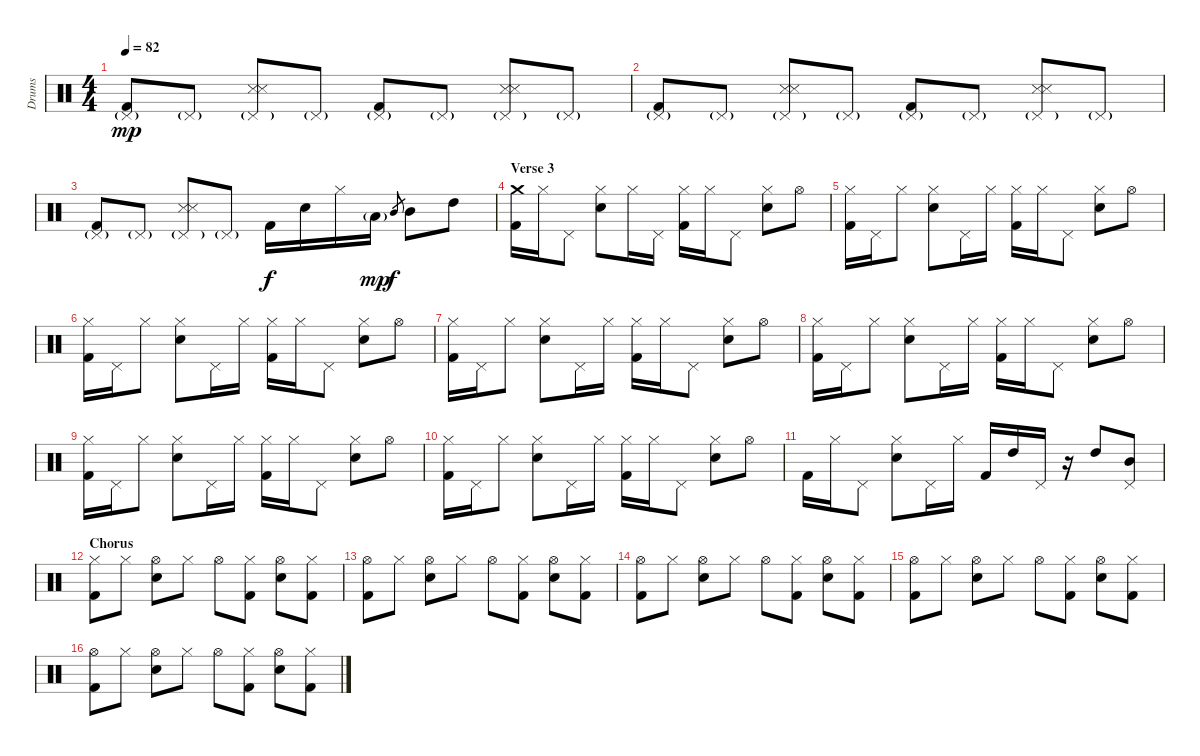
\track ("Drums" "Drums") {instrument percussion}
\staff {score}
\articulation defaults
\ts (4 4)
\tempo 82
\clef neutral
\ks c
("Pedal Hi-Hat (hit)"{g} "Kick (hit) 2").8{dy mp} "Pedal Hi-Hat (hit)"{g}.8 ("Snare (side stick) 3" "Pedal Hi-Hat (hit)"{g} "Snare (side stick) 3").8 "Pedal Hi-Hat (hit)"{g}.8 ("Pedal Hi-Hat (hit)"{g} "Kick (hit) 2").8 "Pedal Hi-Hat (hit)"{g}.8 ("Snare (side stick) 3" "Pedal Hi-Hat (hit)"{g} "Snare (side stick) 3").8 "Pedal Hi-Hat (hit)"{g}.8 |
("Pedal Hi-Hat (hit)"{g} "Kick (hit) 2").8 "Pedal Hi-Hat (hit)"{g}.8 ("Snare (side stick) 3" "Pedal Hi-Hat (hit)"{g} "Snare (side stick) 3").8 "Pedal Hi-Hat (hit)"{g}.8 ("Pedal Hi-Hat (hit)"{g} "Kick (hit) 2").8 "Pedal Hi-Hat (hit)"{g}.8 ("Snare (side stick) 3" "Pedal Hi-Hat (hit)"{g} "Snare (side stick) 3").8 "Pedal Hi-Hat (hit)"{g}.8 |
("Kick (hit) 2" "Pedal Hi-Hat (hit)"{g}).8 "Pedal Hi-Hat (hit)"{g}.8 ("Snare (side stick) 3" "Snare (side stick) 3" "Pedal Hi-Hat (hit)"{g}).8 "Pedal Hi-Hat (hit)"{g}.8 "Kick (hit) 2".16{dy f} "Snare (hit) 2".16 "Hi-Hat (closed)".16 "Low Tom (hit)"{g}.16{dy mp} "Mid Tom (hit)".8{gr dy f} "Mid Tom (hit)".8 "High Tom (hit)".8 |
\section ("" "Verse 3")
("Crash medium (hit)" "Kick (hit) 2").16 "Hi-Hat (closed)".16 "Pedal Hi-Hat (hit)".8 ("Hi-Hat (closed)" "Snare (hit) 2").8 "Hi-Hat (closed)".16 "Pedal Hi-Hat (hit)".16 ("Hi-Hat (closed)" "Kick (hit) 2").16 "Hi-Hat (closed)".16 "Pedal Hi-Hat (hit)".8 ("Hi-Hat (closed)" "Snare (hit) 2").8 "Hi-Hat (open)".8 |
("Hi-Hat (closed)" "Kick (hit) 2").16 "Pedal Hi-Hat (hit)".16 "Hi-Hat (closed)".8 ("Hi-Hat (closed)" "Snare (hit) 2").8 "Pedal Hi-Hat (hit)".16 "Hi-Hat (closed)".16 ("Hi-Hat (closed)" "Kick (hit) 2").16 "Hi-Hat (closed)".16 "Pedal Hi-Hat (hit)".8 ("Hi-Hat (closed)" "Snare (hit) 2").8 "Hi-Hat (open)".8 |
("Hi-Hat (closed)" "Kick (hit) 2").16 "Pedal Hi-Hat (hit)".16 "Hi-Hat (closed)".8 ("Hi-Hat (closed)" "Snare (hit) 2").8 "Pedal Hi-Hat (hit)".16 "Hi-Hat (closed)".16 ("Hi-Hat (closed)" "Kick (hit) 2").16 "Hi-Hat (closed)".16 "Pedal Hi-Hat (hit)".8 ("Hi-Hat (closed)" "Snare (hit) 2").8 "Hi-Hat (open)".8 |
("Hi-Hat (closed)" "Kick (hit) 2").16 "Pedal Hi-Hat (hit)".16 "Hi-Hat (closed)".8 ("Hi-Hat (closed)" "Snare (hit) 2").8 "Pedal Hi-Hat (hit)".16 "Hi-Hat (closed)".16 ("Hi-Hat (closed)" "Kick (hit) 2").16 "Hi-Hat (closed)".16 "Pedal Hi-Hat (hit)".8 ("Hi-Hat (closed)" "Snare (hit) 2").8 "Hi-Hat (open)".8 |
("Hi-Hat (closed)" "Kick (hit) 2").16 "Pedal Hi-Hat (hit)".16 "Hi-Hat (closed)".8 ("Hi-Hat (closed)" "Snare (hit) 2").8 "Pedal Hi-Hat (hit)".16 "Hi-Hat (closed)".16 ("Hi-Hat (closed)" "Kick (hit) 2").16 "Hi-Hat (closed)".16 "Pedal Hi-Hat (hit)".8 ("Hi-Hat (closed)" "Snare (hit) 2").8 "Hi-Hat (open)".8 |
("Hi-Hat (closed)" "Kick (hit) 2").16 "Pedal Hi-Hat (hit)".16 "Hi-Hat (closed)".8 ("Hi-Hat (closed)" "Snare (hit) 2").8 "Pedal Hi-Hat (hit)".16 "Hi-Hat (closed)".16 ("Hi-Hat (closed)" "Kick (hit) 2").16 "Hi-Hat (closed)".16 "Pedal Hi-Hat (hit)".8 ("Hi-Hat (closed)" "Snare (hit) 2").8 "Hi-Hat (open)".8 |
("Hi-Hat (closed)" "Kick (hit) 2").16 "Pedal Hi-Hat (hit)".16 "Hi-Hat (closed)".8 ("Hi-Hat (closed)" "Snare (hit) 2").8 "Pedal Hi-Hat (hit)".16 "Hi-Hat (closed)".16 ("Hi-Hat (closed)" "Kick (hit) 2").16 "Hi-Hat (closed)".16 "Pedal Hi-Hat (hit)".8 ("Hi-Hat (closed)" "Snare (hit) 2").8 "Hi-Hat (open)".8 |
"Kick (hit) 2".16 "Hi-Hat (closed)".16 "Pedal Hi-Hat (hit)".8 ("Snare (hit) 2" "Hi-Hat (closed)").8 "Pedal Hi-Hat (hit)".16 "Hi-Hat (closed)".16 "Kick (hit) 2".16 "High Tom (hit)".16 "Pedal Hi-Hat (hit)".16 r.16 "High Tom (hit)".8 ("Pedal Hi-Hat (hit)" "Mid Tom (hit)").8 |
\section ("" "Chorus")
("Hi-Hat (closed)" "Kick (hit) 2").8 "Hi-Hat (closed)".8 ("Hi-Hat (open)" "Snare (hit) 2").8 "Hi-Hat (closed)".8 "Hi-Hat (open)".8 ("Hi-Hat (closed)" "Kick (hit) 2").8 ("Hi-Hat (open)" "Snare (hit) 2").8 ("Hi-Hat (closed)" "Kick (hit) 2").8 |
("Hi-Hat (open)" "Kick (hit) 2").8 "Hi-Hat (closed)".8 ("Hi-Hat (open)" "Snare (hit) 2").8 "Hi-Hat (closed)".8 "Hi-Hat (open)".8 ("Hi-Hat (closed)" "Kick (hit) 2").8 ("Hi-Hat (open)" "Snare (hit) 2").8 ("Hi-Hat (closed)" "Kick (hit) 2").8 |
("Hi-Hat (open)" "Kick (hit) 2").8 "Hi-Hat (closed)".8 ("Hi-Hat (open)" "Snare (hit) 2").8 "Hi-Hat (closed)".8 "Hi-Hat (open)".8 ("Hi-Hat (closed)" "Kick (hit) 2").8 ("Hi-Hat (open)" "Snare (hit) 2").8 ("Hi-Hat (closed)" "Kick (hit) 2").8 |
("Hi-Hat (open)" "Kick (hit) 2").8 "Hi-Hat (closed)".8 ("Hi-Hat (open)" "Snare (hit) 2").8 "Hi-Hat (closed)".8 "Hi-Hat (open)".8 ("Hi-Hat (closed)" "Kick (hit) 2").8 ("Hi-Hat (open)" "Snare (hit) 2").8 ("Hi-Hat (closed)" "Kick (hit) 2").8 |
("Hi-Hat (open)" "Kick (hit) 2").8 "Hi-Hat (closed)".8 ("Hi-Hat (open)" "Snare (hit) 2").8 "Hi-Hat (closed)".8 "Hi-Hat (open)".8 ("Hi-Hat (closed)" "Kick (hit) 2").8 ("Hi-Hat (open)" "Snare (hit) 2").8 ("Hi-Hat (closed)" "Kick (hit) 2").8
